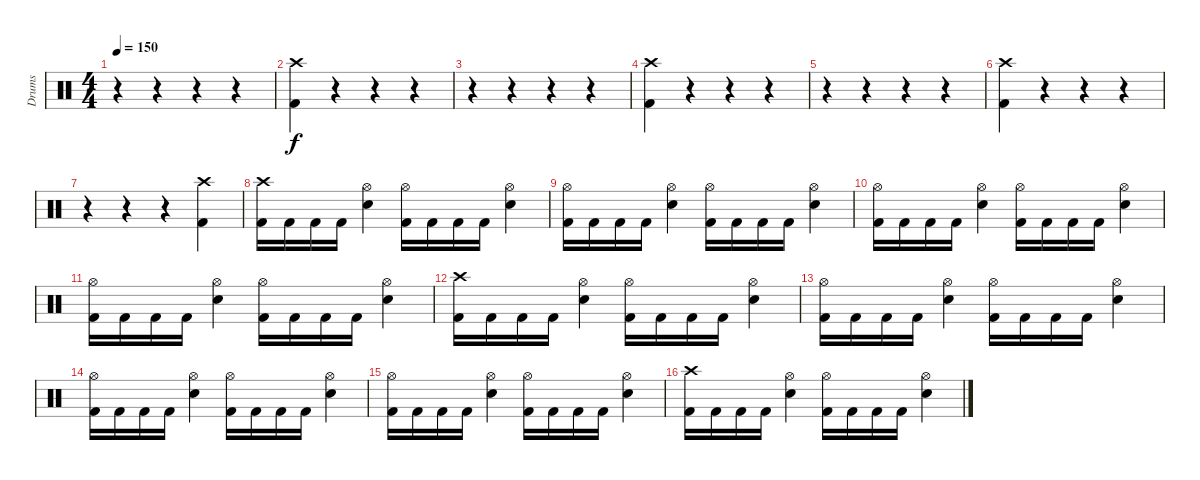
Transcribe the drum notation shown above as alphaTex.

\track ("Drums" "Drums") {instrument percussion}
\staff {score}
\articulation defaults
\ts (4 4)
\tempo 150
\clef neutral
\ks c
r.4{dy f} r.4 r.4 r.4 |
("Crash high (hit)" "Kick (hit) 2").4 r.4 r.4 r.4 |
r.4 r.4 r.4 r.4 |
("Crash high (hit)" "Kick (hit) 2").4 r.4 r.4 r.4 |
r.4 r.4 r.4 r.4 |
("Crash high (hit)" "Kick (hit) 2").4 r.4 r.4 r.4 |
r.4 r.4 r.4 ("Crash high (hit)" "Kick (hit) 2").4 |
("Crash high (hit)" "Kick (hit) 2").16 "Kick (hit) 2".16 "Kick (hit) 2".16 "Kick (hit) 2".16 ("Hi-Hat (open)" "Electric Snare (hit)").4 ("Hi-Hat (open)" "Kick (hit) 2").16 "Kick (hit) 2".16 "Kick (hit) 2".16 "Kick (hit) 2".16 ("Hi-Hat (open)" "Electric Snare (hit)").4 |
("Hi-Hat (open)" "Kick (hit) 2").16 "Kick (hit) 2".16 "Kick (hit) 2".16 "Kick (hit) 2".16 ("Hi-Hat (open)" "Electric Snare (hit)").4 ("Hi-Hat (open)" "Kick (hit) 2").16 "Kick (hit) 2".16 "Kick (hit) 2".16 "Kick (hit) 2".16 ("Hi-Hat (open)" "Electric Snare (hit)").4 |
("Hi-Hat (open)" "Kick (hit) 2").16 "Kick (hit) 2".16 "Kick (hit) 2".16 "Kick (hit) 2".16 ("Hi-Hat (open)" "Electric Snare (hit)").4 ("Hi-Hat (open)" "Kick (hit) 2").16 "Kick (hit) 2".16 "Kick (hit) 2".16 "Kick (hit) 2".16 ("Hi-Hat (open)" "Electric Snare (hit)").4 |
("Hi-Hat (open)" "Kick (hit) 2").16 "Kick (hit) 2".16 "Kick (hit) 2".16 "Kick (hit) 2".16 ("Hi-Hat (open)" "Electric Snare (hit)").4 ("Hi-Hat (open)" "Kick (hit) 2").16 "Kick (hit) 2".16 "Kick (hit) 2".16 "Kick (hit) 2".16 ("Hi-Hat (open)" "Electric Snare (hit)").4 |
("Crash high (hit)" "Kick (hit) 2").16 "Kick (hit) 2".16 "Kick (hit) 2".16 "Kick (hit) 2".16 ("Hi-Hat (open)" "Electric Snare (hit)").4 ("Hi-Hat (open)" "Kick (hit) 2").16 "Kick (hit) 2".16 "Kick (hit) 2".16 "Kick (hit) 2".16 ("Hi-Hat (open)" "Electric Snare (hit)").4 |
("Hi-Hat (open)" "Kick (hit) 2").16 "Kick (hit) 2".16 "Kick (hit) 2".16 "Kick (hit) 2".16 ("Hi-Hat (open)" "Electric Snare (hit)").4 ("Hi-Hat (open)" "Kick (hit) 2").16 "Kick (hit) 2".16 "Kick (hit) 2".16 "Kick (hit) 2".16 ("Hi-Hat (open)" "Electric Snare (hit)").4 |
("Hi-Hat (open)" "Kick (hit) 2").16 "Kick (hit) 2".16 "Kick (hit) 2".16 "Kick (hit) 2".16 ("Hi-Hat (open)" "Electric Snare (hit)").4 ("Hi-Hat (open)" "Kick (hit) 2").16 "Kick (hit) 2".16 "Kick (hit) 2".16 "Kick (hit) 2".16 ("Hi-Hat (open)" "Electric Snare (hit)").4 |
("Hi-Hat (open)" "Kick (hit) 2").16 "Kick (hit) 2".16 "Kick (hit) 2".16 "Kick (hit) 2".16 ("Hi-Hat (open)" "Electric Snare (hit)").4 ("Hi-Hat (open)" "Kick (hit) 2").16 "Kick (hit) 2".16 "Kick (hit) 2".16 "Kick (hit) 2".16 ("Hi-Hat (open)" "Electric Snare (hit)").4 |
("Crash high (hit)" "Kick (hit) 2").16 "Kick (hit) 2".16 "Kick (hit) 2".16 "Kick (hit) 2".16 ("Hi-Hat (open)" "Electric Snare (hit)").4 ("Hi-Hat (open)" "Kick (hit) 2").16 "Kick (hit) 2".16 "Kick (hit) 2".16 "Kick (hit) 2".16 ("Hi-Hat (open)" "Electric Snare (hit)").4
